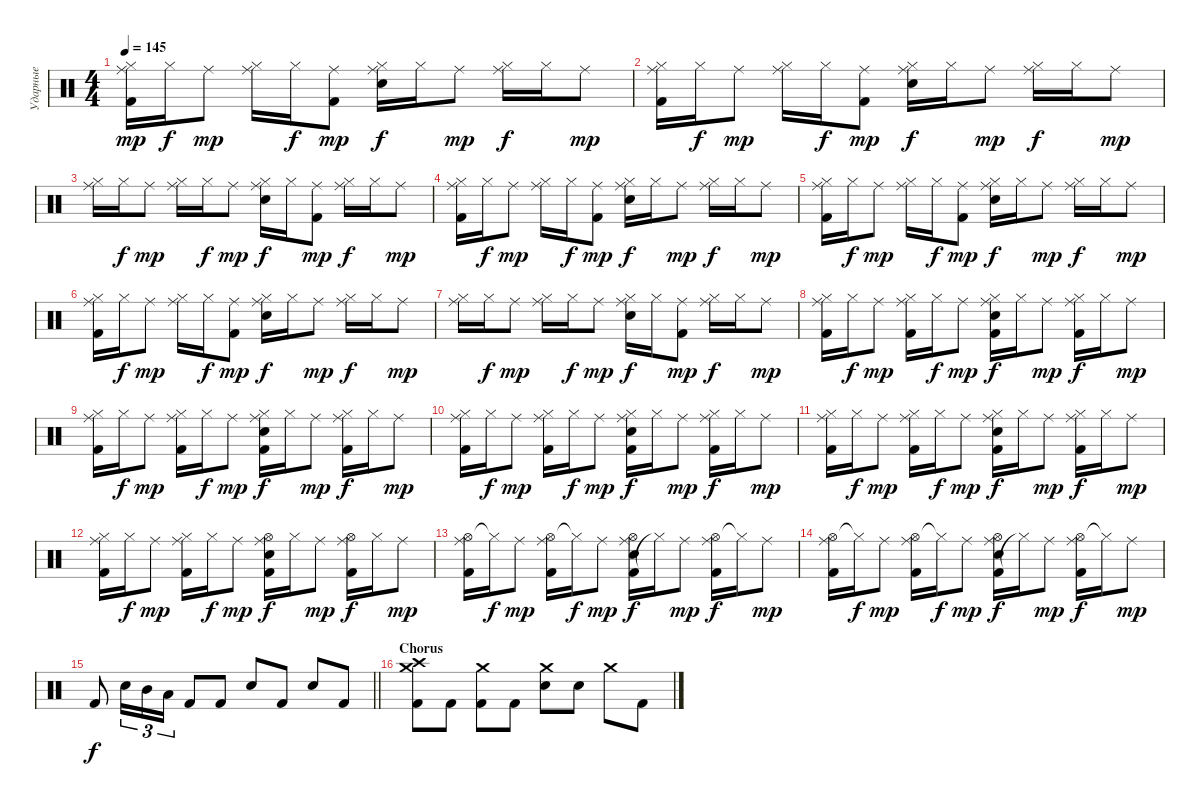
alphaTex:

\track ("Ударные" "Ударные") {instrument percussion}
\staff {score}
\articulation defaults
\ts (4 4)
\tempo 145
\clef neutral
\ks c
("Hi-Hat (closed)" "Ride (middle)" "Kick (hit) 2").16{dy mp} "Hi-Hat (closed)".16{dy f} "Ride (middle)".8{dy mp} ("Hi-Hat (closed)" "Ride (middle)").16 "Hi-Hat (closed)".16{dy f} ("Ride (middle)" "Kick (hit) 2").8{dy mp} ("Hi-Hat (closed)" "Ride (middle)" "Snare (hit) 2").16{dy f} "Hi-Hat (closed)".16 "Ride (middle)".8{dy mp} ("Hi-Hat (closed)" "Ride (middle)").16{dy f} "Hi-Hat (closed)".16 "Ride (middle)".8{dy mp} |
("Hi-Hat (closed)" "Ride (middle)" "Kick (hit) 2").16 "Hi-Hat (closed)".16{dy f} "Ride (middle)".8{dy mp} ("Hi-Hat (closed)" "Ride (middle)").16 "Hi-Hat (closed)".16{dy f} ("Ride (middle)" "Kick (hit) 2").8{dy mp} ("Hi-Hat (closed)" "Ride (middle)" "Snare (hit) 2").16{dy f} "Hi-Hat (closed)".16 "Ride (middle)".8{dy mp} ("Hi-Hat (closed)" "Ride (middle)").16{dy f} "Hi-Hat (closed)".16 "Ride (middle)".8{dy mp} |
("Hi-Hat (closed)" "Ride (middle)").16 "Hi-Hat (closed)".16{dy f} "Ride (middle)".8{dy mp} ("Hi-Hat (closed)" "Ride (middle)").16 "Hi-Hat (closed)".16{dy f} "Ride (middle)".8{dy mp} ("Hi-Hat (closed)" "Ride (middle)" "Snare (hit) 2").16{dy f} "Hi-Hat (closed)".16 ("Ride (middle)" "Kick (hit) 2").8{dy mp} ("Hi-Hat (closed)" "Ride (middle)").16{dy f} "Hi-Hat (closed)".16 "Ride (middle)".8{dy mp} |
("Hi-Hat (closed)" "Ride (middle)" "Kick (hit) 2").16 "Hi-Hat (closed)".16{dy f} "Ride (middle)".8{dy mp} ("Hi-Hat (closed)" "Ride (middle)").16 "Hi-Hat (closed)".16{dy f} ("Ride (middle)" "Kick (hit) 2").8{dy mp} ("Hi-Hat (closed)" "Ride (middle)" "Snare (hit) 2").16{dy f} "Hi-Hat (closed)".16 "Ride (middle)".8{dy mp} ("Hi-Hat (closed)" "Ride (middle)").16{dy f} "Hi-Hat (closed)".16 "Ride (middle)".8{dy mp} |
("Hi-Hat (closed)" "Ride (middle)" "Kick (hit) 2").16 "Hi-Hat (closed)".16{dy f} "Ride (middle)".8{dy mp} ("Hi-Hat (closed)" "Ride (middle)").16 "Hi-Hat (closed)".16{dy f} ("Ride (middle)" "Kick (hit) 2").8{dy mp} ("Hi-Hat (closed)" "Ride (middle)" "Snare (hit) 2").16{dy f} "Hi-Hat (closed)".16 "Ride (middle)".8{dy mp} ("Hi-Hat (closed)" "Ride (middle)").16{dy f} "Hi-Hat (closed)".16 "Ride (middle)".8{dy mp} |
("Hi-Hat (closed)" "Ride (middle)" "Kick (hit) 2").16 "Hi-Hat (closed)".16{dy f} "Ride (middle)".8{dy mp} ("Hi-Hat (closed)" "Ride (middle)").16 "Hi-Hat (closed)".16{dy f} ("Ride (middle)" "Kick (hit) 2").8{dy mp} ("Hi-Hat (closed)" "Ride (middle)" "Snare (hit) 2").16{dy f} "Hi-Hat (closed)".16 "Ride (middle)".8{dy mp} ("Hi-Hat (closed)" "Ride (middle)").16{dy f} "Hi-Hat (closed)".16 "Ride (middle)".8{dy mp} |
("Hi-Hat (closed)" "Ride (middle)").16 "Hi-Hat (closed)".16{dy f} "Ride (middle)".8{dy mp} ("Hi-Hat (closed)" "Ride (middle)").16 "Hi-Hat (closed)".16{dy f} "Ride (middle)".8{dy mp} ("Hi-Hat (closed)" "Ride (middle)" "Snare (hit) 2").16{dy f} "Hi-Hat (closed)".16 ("Ride (middle)" "Kick (hit) 2").8{dy mp} ("Hi-Hat (closed)" "Ride (middle)").16{dy f} "Hi-Hat (closed)".16 "Ride (middle)".8{dy mp} |
("Hi-Hat (closed)" "Ride (middle)" "Kick (hit) 2").16 "Hi-Hat (closed)".16{dy f} "Ride (middle)".8{dy mp} ("Hi-Hat (closed)" "Ride (middle)" "Kick (hit) 2").16 "Hi-Hat (closed)".16{dy f} "Ride (middle)".8{dy mp} ("Kick (hit) 2" "Hi-Hat (closed)" "Ride (middle)" "Snare (hit) 2").16{dy f} "Hi-Hat (closed)".16 "Ride (middle)".8{dy mp} ("Hi-Hat (closed)" "Ride (middle)" "Kick (hit) 2").16{dy f} "Hi-Hat (closed)".16 "Ride (middle)".8{dy mp} |
("Hi-Hat (closed)" "Ride (middle)" "Kick (hit) 2").16 "Hi-Hat (closed)".16{dy f} "Ride (middle)".8{dy mp} ("Hi-Hat (closed)" "Ride (middle)" "Kick (hit) 2").16 "Hi-Hat (closed)".16{dy f} "Ride (middle)".8{dy mp} ("Kick (hit) 2" "Hi-Hat (closed)" "Ride (middle)" "Snare (hit) 2").16{dy f} "Hi-Hat (closed)".16 "Ride (middle)".8{dy mp} ("Hi-Hat (closed)" "Ride (middle)" "Kick (hit) 2").16{dy f} "Hi-Hat (closed)".16 "Ride (middle)".8{dy mp} |
("Hi-Hat (closed)" "Ride (middle)" "Kick (hit) 2").16 "Hi-Hat (closed)".16{dy f} "Ride (middle)".8{dy mp} ("Hi-Hat (closed)" "Ride (middle)" "Kick (hit) 2").16 "Hi-Hat (closed)".16{dy f} "Ride (middle)".8{dy mp} ("Kick (hit) 2" "Hi-Hat (closed)" "Ride (middle)" "Snare (hit) 2").16{dy f} "Hi-Hat (closed)".16 "Ride (middle)".8{dy mp} ("Hi-Hat (closed)" "Ride (middle)" "Kick (hit) 2").16{dy f} "Hi-Hat (closed)".16 "Ride (middle)".8{dy mp} |
("Hi-Hat (closed)" "Ride (middle)" "Kick (hit) 2").16 "Hi-Hat (closed)".16{dy f} "Ride (middle)".8{dy mp} ("Hi-Hat (closed)" "Ride (middle)" "Kick (hit) 2").16 "Hi-Hat (closed)".16{dy f} "Ride (middle)".8{dy mp} ("Kick (hit) 2" "Hi-Hat (closed)" "Ride (middle)" "Snare (hit) 2").16{dy f} "Hi-Hat (closed)".16 "Ride (middle)".8{dy mp} ("Hi-Hat (closed)" "Ride (middle)" "Kick (hit) 2").16{dy f} "Hi-Hat (closed)".16 "Ride (middle)".8{dy mp} |
("Hi-Hat (closed)" "Ride (middle)" "Kick (hit) 2").16 "Hi-Hat (closed)".16{dy f} "Ride (middle)".8{dy mp} ("Hi-Hat (closed)" "Ride (middle)" "Kick (hit) 2").16 "Hi-Hat (closed)".16{dy f} "Ride (middle)".8{dy mp} ("Kick (hit) 2" "Hi-Hat (open)" "Ride (middle)" "Snare (hit) 2").16{dy f} "Hi-Hat (closed)".16 "Ride (middle)".8{dy mp} ("Hi-Hat (open)" "Ride (middle)" "Kick (hit) 2").16{dy f} "Hi-Hat (closed)".16 "Ride (middle)".8{dy mp} |
("Hi-Hat (open)" "Ride (middle)" "Kick (hit) 2").16 "Hi-Hat (closed)"{t}.16{dy f} "Ride (middle)".8{dy mp} ("Hi-Hat (open)" "Ride (middle)" "Kick (hit) 2").16 "Hi-Hat (closed)"{t}.16{dy f} "Ride (middle)".8{dy mp} ("Kick (hit) 2" "Hi-Hat (open)" "Ride (middle)" "Snare (hit) 2").16{dy f} "Hi-Hat (closed)"{t}.16 "Ride (middle)".8{dy mp} ("Hi-Hat (open)" "Ride (middle)" "Kick (hit) 2").16{dy f} "Hi-Hat (closed)"{t}.16 "Ride (middle)".8{dy mp} |
("Hi-Hat (open)" "Ride (middle)" "Kick (hit) 2").16 "Hi-Hat (closed)"{t}.16{dy f} "Ride (middle)".8{dy mp} ("Hi-Hat (open)" "Ride (middle)" "Kick (hit) 2").16 "Hi-Hat (closed)"{t}.16{dy f} "Ride (middle)".8{dy mp} ("Kick (hit) 2" "Hi-Hat (open)" "Ride (middle)" "Snare (hit) 2").16{dy f} "Hi-Hat (closed)"{t}.16 "Ride (middle)".8{dy mp} ("Hi-Hat (open)" "Ride (middle)" "Kick (hit) 2").16{dy f} "Hi-Hat (closed)"{t}.16 "Ride (middle)".8{dy mp} |
\barLineRight lightlight "Kick (hit) 2".8{dy f} "Snare (hit) 2".16{tu (3 2)} "Mid Tom (hit)".16{tu (3 2)} "Low Tom (hit)".16{tu (3 2)} "Kick (hit) 2".8 "Kick (hit) 2".8 "Snare (hit) 2".8 "Kick (hit) 2".8 "Snare (hit) 2".8 "Kick (hit) 2".8
|
\section ("" "Chorus")
("Crash high (hit)" "Crash medium (hit)" "Kick (hit) 2").8 "Kick (hit) 2".8 ("Crash medium (hit)" "Kick (hit) 2").8 "Kick (hit) 2".8 ("Crash medium (hit)" "Snare (hit) 2").8 "Snare (hit) 2".8 "Crash medium (hit)".8 "Kick (hit) 2".8
